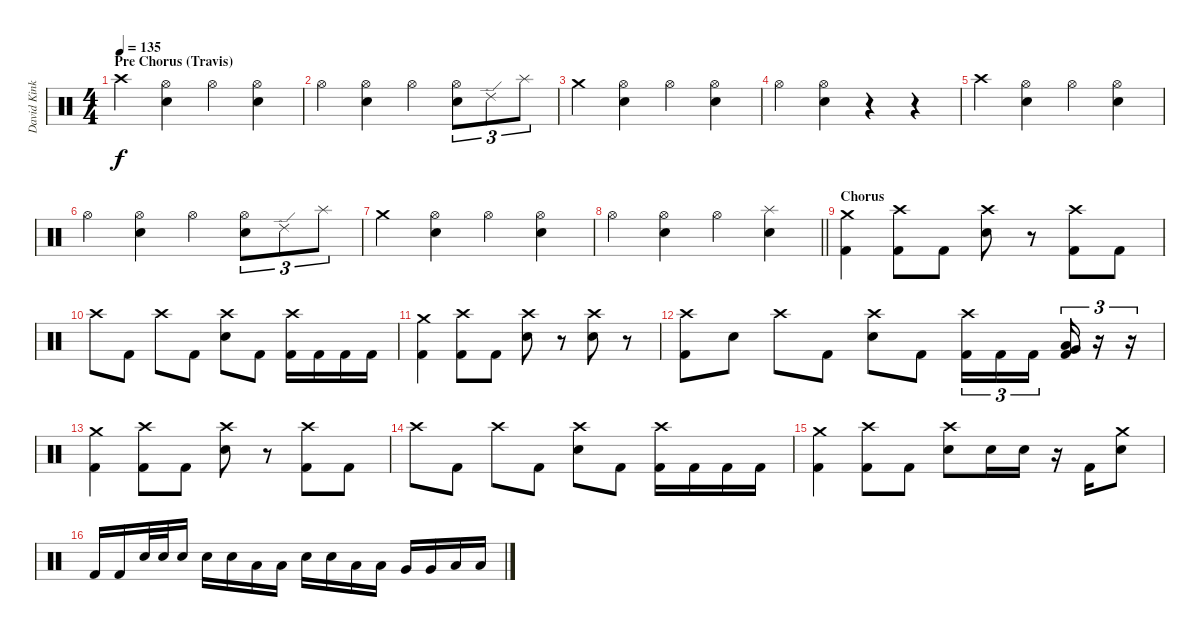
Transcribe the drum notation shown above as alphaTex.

\track ("David Kinkade" "David Kink") {instrument percussion}
\staff {score}
\articulation defaults
\ts (4 4)
\section ("" "Pre Chorus (Travis)")
\tempo 135
\clef neutral
\ks c "Crash high (hit)".4{dy f}
("Hi-Hat (open)" "Snare (hit) 2").4 "Hi-Hat (open)".4 ("Hi-Hat (open)" "Snare (hit) 2").4 |
"Hi-Hat (open)".4 ("Hi-Hat (open)" "Snare (hit) 2").4 "Hi-Hat (open)".4 ("Hi-Hat (open)" "Snare (hit) 2").8{tu (3 2)} "Ride (edge) 2".8{tu (3 2)} "Splash (hit)".8{tu (3 2)} |
"Crash medium (hit)".4 ("Hi-Hat (open)" "Snare (hit) 2").4 "Hi-Hat (open)".4 ("Hi-Hat (open)" "Snare (hit) 2").4 |
"Hi-Hat (open)".4 ("Hi-Hat (open)" "Snare (hit) 2").4 r.4 r.4 |
"Crash high (hit)".4 ("Hi-Hat (open)" "Snare (hit) 2").4 "Hi-Hat (open)".4 ("Hi-Hat (open)" "Snare (hit) 2").4 |
"Hi-Hat (open)".4 ("Hi-Hat (open)" "Snare (hit) 2").4 "Hi-Hat (open)".4 ("Hi-Hat (open)" "Snare (hit) 2").8{tu (3 2)} "Ride (edge) 2".8{tu (3 2)} "Splash (hit)".8{tu (3 2)} |
"Crash medium (hit)".4 ("Hi-Hat (open)" "Snare (hit) 2").4 "Hi-Hat (open)".4 ("Hi-Hat (open)" "Snare (hit) 2").4 |
\barLineRight lightlight "Hi-Hat (open)".4
("Hi-Hat (open)" "Snare (hit) 2").4 "Hi-Hat (open)".4 ("Splash (hit)" "Snare (hit) 2").4 |
\section ("" "Chorus")
("Crash medium (hit)" "Kick (hit) 2").4 ("Crash high (hit)" "Kick (hit) 2").8 "Kick (hit) 2".8 ("Crash high (hit)" "Snare (hit) 2").8 r.8 ("Crash high (hit)" "Kick (hit) 2").8 "Kick (hit) 2".8 |
"Crash high (hit)".8 "Kick (hit) 2".8 "Crash high (hit)".8 "Kick (hit) 2".8 ("Crash high (hit)" "Snare (hit) 2").8 "Kick (hit) 2".8 ("Crash high (hit)" "Kick (hit) 2").16 "Kick (hit) 2".16 "Kick (hit) 2".16 "Kick (hit) 2".16 |
("Crash medium (hit)" "Kick (hit) 2").4 ("Crash high (hit)" "Kick (hit) 2").8 "Kick (hit) 2".8 ("Crash high (hit)" "Snare (hit) 2").8 r.8 ("Crash high (hit)" "Snare (hit) 2").8 r.8 |
("Crash high (hit)" "Kick (hit) 2").8 "Snare (hit) 2".8 "Crash high (hit)".8 "Kick (hit) 2".8 ("Crash high (hit)" "Snare (hit) 2").8 "Kick (hit) 2".8 ("Crash high (hit)" "Kick (hit) 2").16{tu (3 2)} "Kick (hit) 2".16{tu (3 2)} "Kick (hit) 2".16{tu (3 2) beam splitsecondary} ("Very Low Tom (hit)" "Low Floor Tom (hit)" "Kick (hit) 2").16{tu (3 2)} r.16{tu (3 2)} r.16{tu (3 2)} |
("Crash medium (hit)" "Kick (hit) 2").4 ("Crash high (hit)" "Kick (hit) 2").8 "Kick (hit) 2".8 ("Crash high (hit)" "Snare (hit) 2").8 r.8 ("Crash high (hit)" "Kick (hit) 2").8 "Kick (hit) 2".8 |
"Crash high (hit)".8 "Kick (hit) 2".8 "Crash high (hit)".8 "Kick (hit) 2".8 ("Crash high (hit)" "Snare (hit) 2").8 "Kick (hit) 2".8 ("Crash high (hit)" "Kick (hit) 2").16 "Kick (hit) 2".16 "Kick (hit) 2".16 "Kick (hit) 2".16 |
("Crash medium (hit)" "Kick (hit) 2").4 ("Crash high (hit)" "Kick (hit) 2").8 "Kick (hit) 2".8 ("Crash high (hit)" "Snare (hit) 2").8 "Snare (hit) 2".16 "Snare (hit) 2".16 r.16 "Kick (hit) 2".16 ("Crash medium (hit)" "Snare (hit) 2").8 |
"Kick (hit) 2".16 "Kick (hit) 2".16 "Snare (hit) 2".32 "Snare (hit) 2".32 "Snare (hit) 2".16 "Snare (hit) 2".16 "Snare (hit) 2".16 "Low Tom (hit)".16 "Low Tom (hit)".16 "Snare (hit) 2".16 "Snare (hit) 2".16 "Low Tom (hit)".16 "Low Tom (hit)".16 "Very Low Tom (hit)".16 "Very Low Tom (hit)".16 "Low Floor Tom (hit)".16 "Low Floor Tom (hit)".16
